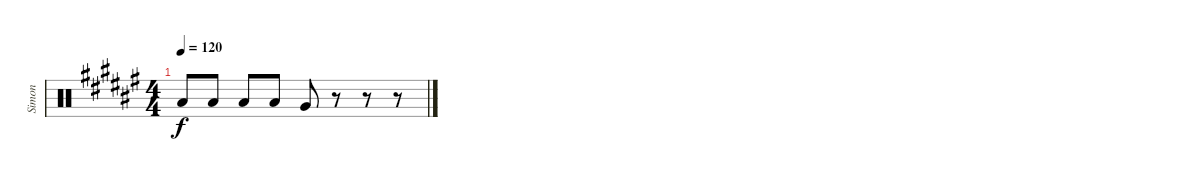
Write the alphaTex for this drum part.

\track ("Simon" "Simon") {instrument percussion}
\staff {score}
\articulation defaults
\ts (4 4)
\tempo 120
\clef neutral
\ks f# "Low Tom (hit)".8{dy f} "Low Tom (hit)".8 "Low Tom (hit)".8 "Low Tom (hit)".8 "Very Low Tom (hit)".8
r.8 r.8 r.8
